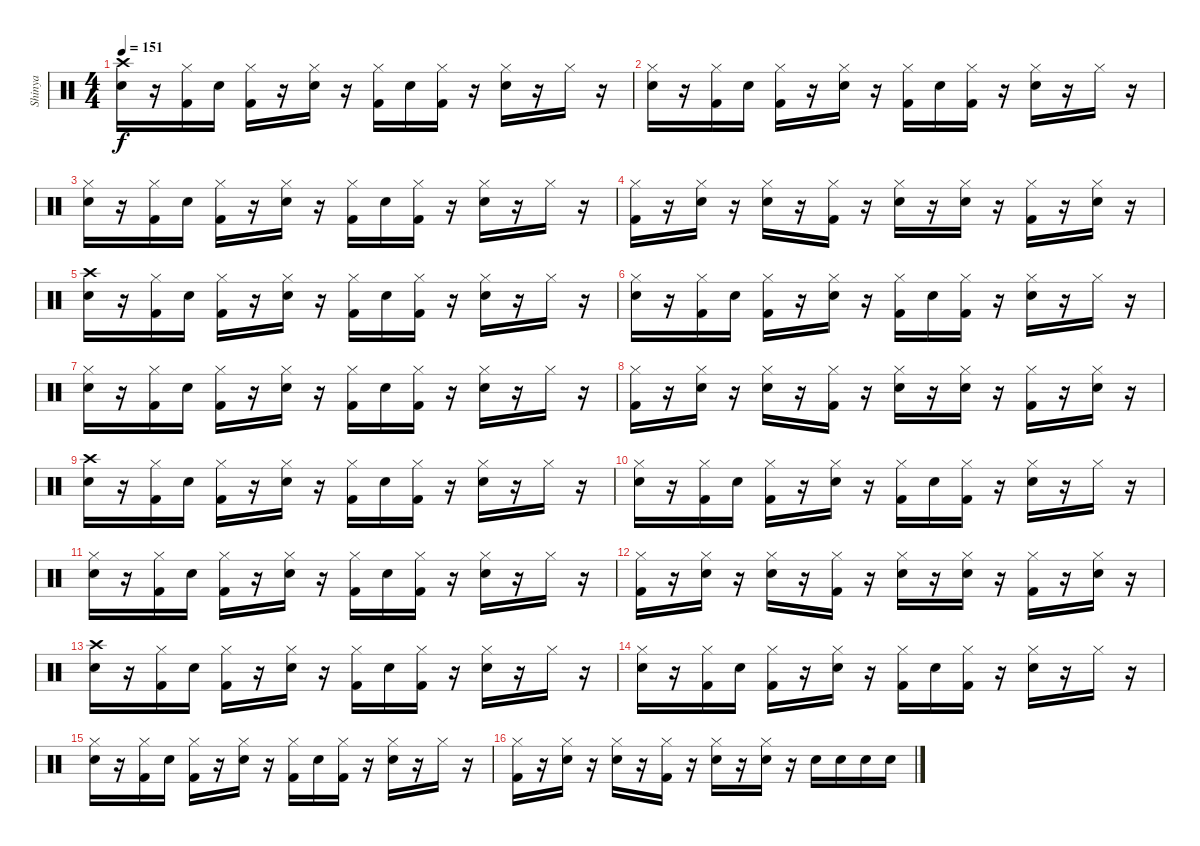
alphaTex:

\track ("Shinya" "Shinya") {instrument percussion}
\staff {score}
\articulation defaults
\ts (4 4)
\tempo 151
\clef neutral
\ks c
("Snare (hit) 2" "Crash high (hit)").16{dy f} r.16 ("Hi-Hat (closed)" "Kick (hit) 2").16 "Snare (hit) 2".16 ("Kick (hit) 2" "Hi-Hat (closed)").16 r.16 ("Snare (hit) 2" "Hi-Hat (closed)").16 r.16 ("Hi-Hat (closed)" "Kick (hit) 2").16 "Snare (hit) 2".16 ("Kick (hit) 2" "Hi-Hat (closed)").16 r.16 ("Snare (hit) 2" "Hi-Hat (closed)").16 r.16 "Hi-Hat (closed)".16 r.16 |
("Snare (hit) 2" "Hi-Hat (closed)").16 r.16 ("Hi-Hat (closed)" "Kick (hit) 2").16 "Snare (hit) 2".16 ("Kick (hit) 2" "Hi-Hat (closed)").16 r.16 ("Snare (hit) 2" "Hi-Hat (closed)").16 r.16 ("Hi-Hat (closed)" "Kick (hit) 2").16 "Snare (hit) 2".16 ("Kick (hit) 2" "Hi-Hat (closed)").16 r.16 ("Snare (hit) 2" "Hi-Hat (closed)").16 r.16 "Hi-Hat (closed)".16 r.16 |
("Snare (hit) 2" "Hi-Hat (closed)").16 r.16 ("Hi-Hat (closed)" "Kick (hit) 2").16 "Snare (hit) 2".16 ("Kick (hit) 2" "Hi-Hat (closed)").16 r.16 ("Snare (hit) 2" "Hi-Hat (closed)").16 r.16 ("Hi-Hat (closed)" "Kick (hit) 2").16 "Snare (hit) 2".16 ("Kick (hit) 2" "Hi-Hat (closed)").16 r.16 ("Snare (hit) 2" "Hi-Hat (closed)").16 r.16 "Hi-Hat (closed)".16 r.16 |
("Kick (hit) 2" "Hi-Hat (closed)").16 r.16 ("Snare (hit) 2" "Hi-Hat (closed)").16 r.16 ("Snare (hit) 2" "Hi-Hat (closed)").16 r.16 ("Kick (hit) 2" "Hi-Hat (closed)").16 r.16 ("Snare (hit) 2" "Hi-Hat (closed)").16 r.16 ("Snare (hit) 2" "Hi-Hat (closed)").16 r.16 ("Kick (hit) 2" "Hi-Hat (closed)").16 r.16 ("Snare (hit) 2" "Hi-Hat (closed)").16 r.16 |
("Snare (hit) 2" "Crash high (hit)").16 r.16 ("Hi-Hat (closed)" "Kick (hit) 2").16 "Snare (hit) 2".16 ("Kick (hit) 2" "Hi-Hat (closed)").16 r.16 ("Snare (hit) 2" "Hi-Hat (closed)").16 r.16 ("Hi-Hat (closed)" "Kick (hit) 2").16 "Snare (hit) 2".16 ("Kick (hit) 2" "Hi-Hat (closed)").16 r.16 ("Snare (hit) 2" "Hi-Hat (closed)").16 r.16 "Hi-Hat (closed)".16 r.16 |
("Snare (hit) 2" "Hi-Hat (closed)").16 r.16 ("Hi-Hat (closed)" "Kick (hit) 2").16 "Snare (hit) 2".16 ("Kick (hit) 2" "Hi-Hat (closed)").16 r.16 ("Snare (hit) 2" "Hi-Hat (closed)").16 r.16 ("Hi-Hat (closed)" "Kick (hit) 2").16 "Snare (hit) 2".16 ("Kick (hit) 2" "Hi-Hat (closed)").16 r.16 ("Snare (hit) 2" "Hi-Hat (closed)").16 r.16 "Hi-Hat (closed)".16 r.16 |
("Snare (hit) 2" "Hi-Hat (closed)").16 r.16 ("Hi-Hat (closed)" "Kick (hit) 2").16 "Snare (hit) 2".16 ("Kick (hit) 2" "Hi-Hat (closed)").16 r.16 ("Snare (hit) 2" "Hi-Hat (closed)").16 r.16 ("Hi-Hat (closed)" "Kick (hit) 2").16 "Snare (hit) 2".16 ("Kick (hit) 2" "Hi-Hat (closed)").16 r.16 ("Snare (hit) 2" "Hi-Hat (closed)").16 r.16 "Hi-Hat (closed)".16 r.16 |
("Kick (hit) 2" "Hi-Hat (closed)").16 r.16 ("Snare (hit) 2" "Hi-Hat (closed)").16 r.16 ("Snare (hit) 2" "Hi-Hat (closed)").16 r.16 ("Kick (hit) 2" "Hi-Hat (closed)").16 r.16 ("Snare (hit) 2" "Hi-Hat (closed)").16 r.16 ("Snare (hit) 2" "Hi-Hat (closed)").16 r.16 ("Kick (hit) 2" "Hi-Hat (closed)").16 r.16 ("Snare (hit) 2" "Hi-Hat (closed)").16 r.16 |
("Snare (hit) 2" "Crash high (hit)").16 r.16 ("Hi-Hat (closed)" "Kick (hit) 2").16 "Snare (hit) 2".16 ("Kick (hit) 2" "Hi-Hat (closed)").16 r.16 ("Snare (hit) 2" "Hi-Hat (closed)").16 r.16 ("Hi-Hat (closed)" "Kick (hit) 2").16 "Snare (hit) 2".16 ("Kick (hit) 2" "Hi-Hat (closed)").16 r.16 ("Snare (hit) 2" "Hi-Hat (closed)").16 r.16 "Hi-Hat (closed)".16 r.16 |
("Snare (hit) 2" "Hi-Hat (closed)").16 r.16 ("Hi-Hat (closed)" "Kick (hit) 2").16 "Snare (hit) 2".16 ("Kick (hit) 2" "Hi-Hat (closed)").16 r.16 ("Snare (hit) 2" "Hi-Hat (closed)").16 r.16 ("Hi-Hat (closed)" "Kick (hit) 2").16 "Snare (hit) 2".16 ("Kick (hit) 2" "Hi-Hat (closed)").16 r.16 ("Snare (hit) 2" "Hi-Hat (closed)").16 r.16 "Hi-Hat (closed)".16 r.16 |
("Snare (hit) 2" "Hi-Hat (closed)").16 r.16 ("Hi-Hat (closed)" "Kick (hit) 2").16 "Snare (hit) 2".16 ("Kick (hit) 2" "Hi-Hat (closed)").16 r.16 ("Snare (hit) 2" "Hi-Hat (closed)").16 r.16 ("Hi-Hat (closed)" "Kick (hit) 2").16 "Snare (hit) 2".16 ("Kick (hit) 2" "Hi-Hat (closed)").16 r.16 ("Snare (hit) 2" "Hi-Hat (closed)").16 r.16 "Hi-Hat (closed)".16 r.16 |
("Kick (hit) 2" "Hi-Hat (closed)").16 r.16 ("Snare (hit) 2" "Hi-Hat (closed)").16 r.16 ("Snare (hit) 2" "Hi-Hat (closed)").16 r.16 ("Kick (hit) 2" "Hi-Hat (closed)").16 r.16 ("Snare (hit) 2" "Hi-Hat (closed)").16 r.16 ("Snare (hit) 2" "Hi-Hat (closed)").16 r.16 ("Kick (hit) 2" "Hi-Hat (closed)").16 r.16 ("Snare (hit) 2" "Hi-Hat (closed)").16 r.16 |
("Snare (hit) 2" "Crash high (hit)").16 r.16 ("Hi-Hat (closed)" "Kick (hit) 2").16 "Snare (hit) 2".16 ("Kick (hit) 2" "Hi-Hat (closed)").16 r.16 ("Snare (hit) 2" "Hi-Hat (closed)").16 r.16 ("Hi-Hat (closed)" "Kick (hit) 2").16 "Snare (hit) 2".16 ("Kick (hit) 2" "Hi-Hat (closed)").16 r.16 ("Snare (hit) 2" "Hi-Hat (closed)").16 r.16 "Hi-Hat (closed)".16 r.16 |
("Snare (hit) 2" "Hi-Hat (closed)").16 r.16 ("Hi-Hat (closed)" "Kick (hit) 2").16 "Snare (hit) 2".16 ("Kick (hit) 2" "Hi-Hat (closed)").16 r.16 ("Snare (hit) 2" "Hi-Hat (closed)").16 r.16 ("Hi-Hat (closed)" "Kick (hit) 2").16 "Snare (hit) 2".16 ("Kick (hit) 2" "Hi-Hat (closed)").16 r.16 ("Snare (hit) 2" "Hi-Hat (closed)").16 r.16 "Hi-Hat (closed)".16 r.16 |
("Snare (hit) 2" "Hi-Hat (closed)").16 r.16 ("Hi-Hat (closed)" "Kick (hit) 2").16 "Snare (hit) 2".16 ("Kick (hit) 2" "Hi-Hat (closed)").16 r.16 ("Snare (hit) 2" "Hi-Hat (closed)").16 r.16 ("Hi-Hat (closed)" "Kick (hit) 2").16 "Snare (hit) 2".16 ("Kick (hit) 2" "Hi-Hat (closed)").16 r.16 ("Snare (hit) 2" "Hi-Hat (closed)").16 r.16 "Hi-Hat (closed)".16 r.16 |
("Kick (hit) 2" "Hi-Hat (closed)").16 r.16 ("Snare (hit) 2" "Hi-Hat (closed)").16 r.16 ("Snare (hit) 2" "Hi-Hat (closed)").16 r.16 ("Kick (hit) 2" "Hi-Hat (closed)").16 r.16 ("Snare (hit) 2" "Hi-Hat (closed)").16 r.16 ("Snare (hit) 2" "Hi-Hat (closed)").16 r.16 "Snare (hit) 2".16 "Snare (hit) 2".16 "Snare (hit) 2".16 "Snare (hit) 2".16
